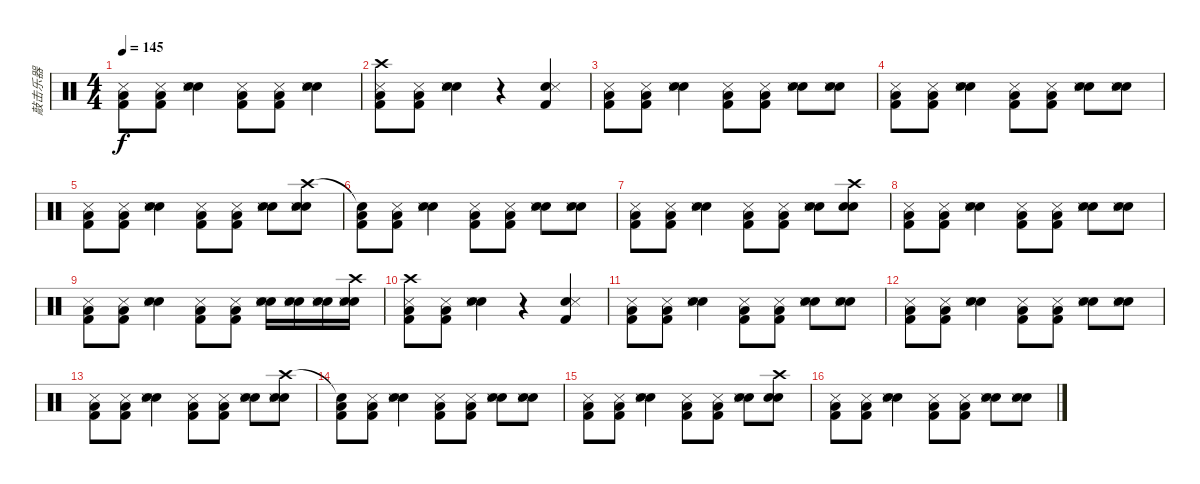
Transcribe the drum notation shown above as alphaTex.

\track ("敲击乐器" "敲击乐器") {instrument percussion}
\staff {score}
\articulation defaults
\ts (4 4)
\tempo 145
\clef neutral
\ks c
("Low Floor Tom (hit)" "Kick (hit) 2" "Snare (side stick) 3").8{dy f} ("Low Floor Tom (hit)" "Kick (hit) 2" "Snare (side stick) 3").8 ("Snare (hit) 2" "Electric Snare (hit)" "Snare (side stick) 3").4 ("Low Floor Tom (hit)" "Kick (hit) 2" "Snare (side stick) 3").8 ("Low Floor Tom (hit)" "Kick (hit) 2" "Snare (side stick) 3").8 ("Snare (hit) 2" "Electric Snare (hit)" "Snare (side stick) 3").4 |
("Low Floor Tom (hit)" "Kick (hit) 2" "Snare (side stick) 3" "Crash high (hit)").8 ("Low Floor Tom (hit)" "Kick (hit) 2" "Snare (side stick) 3").8 ("Snare (hit) 2" "Electric Snare (hit)" "Snare (side stick) 3").4 r.4 ("Kick (hit) 2" "Electric Snare (hit)" "Snare (side stick) 3").4 |
("Low Floor Tom (hit)" "Kick (hit) 2" "Snare (side stick) 3").8 ("Low Floor Tom (hit)" "Kick (hit) 2" "Snare (side stick) 3").8 ("Snare (hit) 2" "Electric Snare (hit)" "Snare (side stick) 3").4 ("Low Floor Tom (hit)" "Kick (hit) 2" "Snare (side stick) 3").8 ("Low Floor Tom (hit)" "Kick (hit) 2" "Snare (side stick) 3").8 ("Snare (hit) 2" "Electric Snare (hit)" "Snare (side stick) 3").8 ("Snare (hit) 2" "Electric Snare (hit)" "Snare (side stick) 3").8 |
("Low Floor Tom (hit)" "Kick (hit) 2" "Snare (side stick) 3").8 ("Low Floor Tom (hit)" "Kick (hit) 2" "Snare (side stick) 3").8 ("Snare (hit) 2" "Electric Snare (hit)" "Snare (side stick) 3").4 ("Low Floor Tom (hit)" "Kick (hit) 2" "Snare (side stick) 3").8 ("Low Floor Tom (hit)" "Kick (hit) 2" "Snare (side stick) 3").8 ("Snare (hit) 2" "Electric Snare (hit)" "Snare (side stick) 3").8 ("Snare (hit) 2" "Electric Snare (hit)" "Snare (side stick) 3").8 |
("Low Floor Tom (hit)" "Kick (hit) 2" "Snare (side stick) 3").8 ("Low Floor Tom (hit)" "Kick (hit) 2" "Snare (side stick) 3").8 ("Snare (hit) 2" "Electric Snare (hit)" "Snare (side stick) 3").4 ("Low Floor Tom (hit)" "Kick (hit) 2" "Snare (side stick) 3").8 ("Low Floor Tom (hit)" "Kick (hit) 2" "Snare (side stick) 3").8 ("Snare (hit) 2" "Electric Snare (hit)" "Snare (side stick) 3").8 ("Snare (hit) 2" "Snare (side stick) 3" "Crash high (hit)" "Electric Snare (hit)").8 |
("Low Floor Tom (hit)" "Kick (hit) 2" "Snare (hit)"{t}).8 ("Low Floor Tom (hit)" "Kick (hit) 2" "Snare (side stick) 3").8 ("Snare (hit) 2" "Electric Snare (hit)" "Snare (side stick) 3").4 ("Low Floor Tom (hit)" "Kick (hit) 2" "Snare (side stick) 3").8 ("Low Floor Tom (hit)" "Kick (hit) 2" "Snare (side stick) 3").8 ("Snare (hit) 2" "Electric Snare (hit)" "Snare (side stick) 3").8 ("Snare (hit) 2" "Electric Snare (hit)" "Snare (side stick) 3").8 |
("Low Floor Tom (hit)" "Kick (hit) 2" "Snare (side stick) 3").8 ("Low Floor Tom (hit)" "Kick (hit) 2" "Snare (side stick) 3").8 ("Snare (hit) 2" "Electric Snare (hit)" "Snare (side stick) 3").4 ("Low Floor Tom (hit)" "Kick (hit) 2" "Snare (side stick) 3").8 ("Low Floor Tom (hit)" "Kick (hit) 2" "Snare (side stick) 3").8 ("Snare (hit) 2" "Electric Snare (hit)" "Snare (side stick) 3").8 ("Snare (hit) 2" "Electric Snare (hit)" "Crash high (hit)").8 |
("Low Floor Tom (hit)" "Kick (hit) 2" "Snare (side stick) 3").8 ("Low Floor Tom (hit)" "Kick (hit) 2" "Snare (side stick) 3").8 ("Snare (hit) 2" "Electric Snare (hit)" "Snare (side stick) 3").4 ("Low Floor Tom (hit)" "Kick (hit) 2" "Snare (side stick) 3").8 ("Low Floor Tom (hit)" "Kick (hit) 2" "Snare (side stick) 3").8 ("Snare (hit) 2" "Electric Snare (hit)" "Snare (side stick) 3").8 ("Snare (hit) 2" "Electric Snare (hit)" "Snare (side stick) 3").8 |
("Low Floor Tom (hit)" "Kick (hit) 2" "Snare (side stick) 3").8 ("Low Floor Tom (hit)" "Kick (hit) 2" "Snare (side stick) 3").8 ("Snare (hit) 2" "Electric Snare (hit)" "Snare (side stick) 3").4 ("Low Floor Tom (hit)" "Kick (hit) 2" "Snare (side stick) 3").8 ("Low Floor Tom (hit)" "Kick (hit) 2" "Snare (side stick) 3").8 ("Electric Snare (hit)" "Hand Clap (hit)" "Snare (side stick) 3").16 ("Electric Snare (hit)" "Hand Clap (hit)" "Snare (side stick) 3").16 ("Electric Snare (hit)" "Hand Clap (hit)" "Snare (side stick) 3").16 ("Electric Snare (hit)" "Hand Clap (hit)" "Snare (side stick) 3" "Crash high (hit)").16 |
("Low Floor Tom (hit)" "Kick (hit) 2" "Snare (side stick) 3" "Crash high (hit)").8 ("Low Floor Tom (hit)" "Kick (hit) 2" "Snare (side stick) 3").8 ("Snare (hit) 2" "Electric Snare (hit)" "Snare (side stick) 3").4 r.4 ("Kick (hit) 2" "Electric Snare (hit)" "Snare (side stick) 3").4 |
("Low Floor Tom (hit)" "Kick (hit) 2" "Snare (side stick) 3").8 ("Low Floor Tom (hit)" "Kick (hit) 2" "Snare (side stick) 3").8 ("Snare (hit) 2" "Electric Snare (hit)" "Snare (side stick) 3").4 ("Low Floor Tom (hit)" "Kick (hit) 2" "Snare (side stick) 3").8 ("Low Floor Tom (hit)" "Kick (hit) 2" "Snare (side stick) 3").8 ("Snare (hit) 2" "Electric Snare (hit)" "Snare (side stick) 3").8 ("Snare (hit) 2" "Electric Snare (hit)" "Snare (side stick) 3").8 |
("Low Floor Tom (hit)" "Kick (hit) 2" "Snare (side stick) 3").8 ("Low Floor Tom (hit)" "Kick (hit) 2" "Snare (side stick) 3").8 ("Snare (hit) 2" "Electric Snare (hit)" "Snare (side stick) 3").4 ("Low Floor Tom (hit)" "Kick (hit) 2" "Snare (side stick) 3").8 ("Low Floor Tom (hit)" "Kick (hit) 2" "Snare (side stick) 3").8 ("Snare (hit) 2" "Electric Snare (hit)" "Snare (side stick) 3").8 ("Snare (hit) 2" "Electric Snare (hit)" "Snare (side stick) 3").8 |
("Low Floor Tom (hit)" "Kick (hit) 2" "Snare (side stick) 3").8 ("Low Floor Tom (hit)" "Kick (hit) 2" "Snare (side stick) 3").8 ("Snare (hit) 2" "Electric Snare (hit)" "Snare (side stick) 3").4 ("Low Floor Tom (hit)" "Kick (hit) 2" "Snare (side stick) 3").8 ("Low Floor Tom (hit)" "Kick (hit) 2" "Snare (side stick) 3").8 ("Snare (hit) 2" "Electric Snare (hit)" "Snare (side stick) 3").8 ("Snare (hit) 2" "Snare (side stick) 3" "Crash high (hit)" "Electric Snare (hit)").8 |
("Low Floor Tom (hit)" "Kick (hit) 2" "Snare (hit)"{t}).8 ("Low Floor Tom (hit)" "Kick (hit) 2" "Snare (side stick) 3").8 ("Snare (hit) 2" "Electric Snare (hit)" "Snare (side stick) 3").4 ("Low Floor Tom (hit)" "Kick (hit) 2" "Snare (side stick) 3").8 ("Low Floor Tom (hit)" "Kick (hit) 2" "Snare (side stick) 3").8 ("Snare (hit) 2" "Electric Snare (hit)" "Snare (side stick) 3").8 ("Snare (hit) 2" "Electric Snare (hit)" "Snare (side stick) 3").8 |
("Low Floor Tom (hit)" "Kick (hit) 2" "Snare (side stick) 3").8 ("Low Floor Tom (hit)" "Kick (hit) 2" "Snare (side stick) 3").8 ("Snare (hit) 2" "Electric Snare (hit)" "Snare (side stick) 3").4 ("Low Floor Tom (hit)" "Kick (hit) 2" "Snare (side stick) 3").8 ("Low Floor Tom (hit)" "Kick (hit) 2" "Snare (side stick) 3").8 ("Snare (hit) 2" "Electric Snare (hit)" "Snare (side stick) 3").8 ("Snare (hit) 2" "Electric Snare (hit)" "Crash high (hit)").8 |
("Low Floor Tom (hit)" "Kick (hit) 2" "Snare (side stick) 3").8 ("Low Floor Tom (hit)" "Kick (hit) 2" "Snare (side stick) 3").8 ("Snare (hit) 2" "Electric Snare (hit)" "Snare (side stick) 3").4 ("Low Floor Tom (hit)" "Kick (hit) 2" "Snare (side stick) 3").8 ("Low Floor Tom (hit)" "Kick (hit) 2" "Snare (side stick) 3").8 ("Snare (hit) 2" "Electric Snare (hit)" "Snare (side stick) 3").8 ("Snare (hit) 2" "Electric Snare (hit)" "Snare (side stick) 3").8
